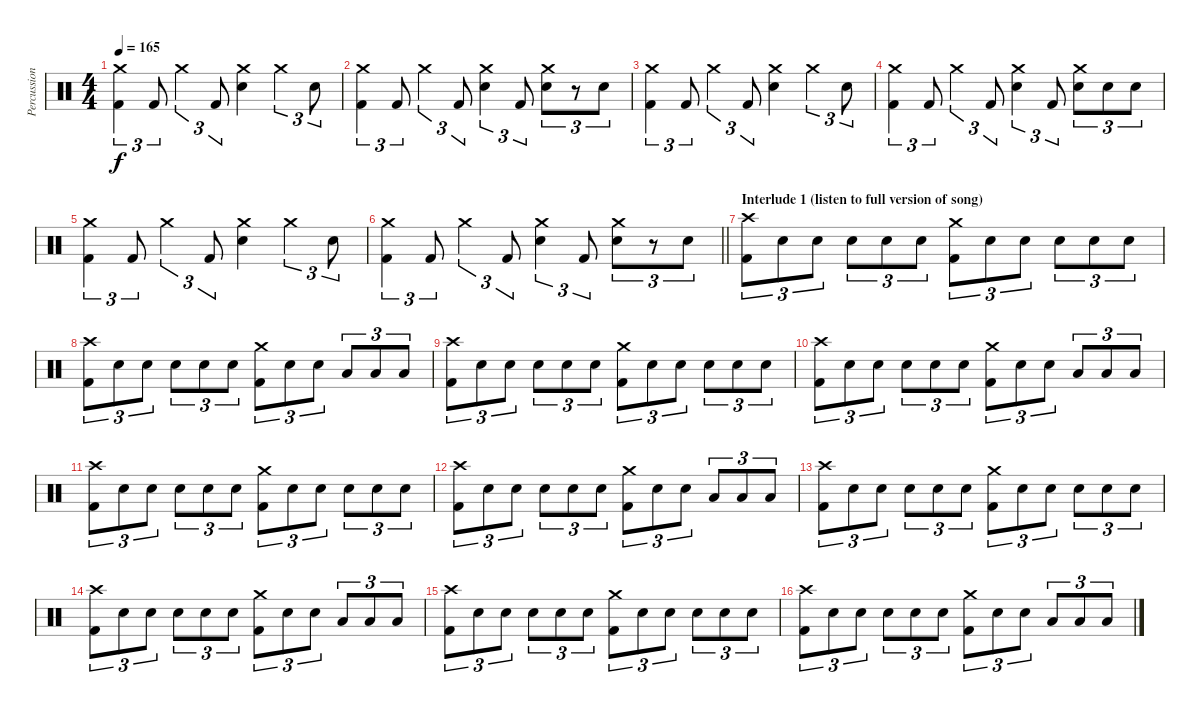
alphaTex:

\track ("Percussion" "Percussion") {instrument percussion}
\staff {score}
\articulation defaults
\ts (4 4)
\tempo 165
\clef neutral
\ks c
("Crash medium (hit)" "Kick (hit) 2").4{tu (3 2) dy f} "Kick (hit) 2".8{tu (3 2)} "Crash medium (hit)".4{tu (3 2)} "Kick (hit) 2".8{tu (3 2)} ("Crash medium (hit)" "Electric Snare (hit)").4 "Crash medium (hit)".4{tu (3 2)} "Electric Snare (hit)".8{tu (3 2)} |
("Crash medium (hit)" "Kick (hit) 2").4{tu (3 2)} "Kick (hit) 2".8{tu (3 2)} "Crash medium (hit)".4{tu (3 2)} "Kick (hit) 2".8{tu (3 2)} ("Crash medium (hit)" "Electric Snare (hit)").4{tu (3 2)} "Kick (hit) 2".8{tu (3 2)} ("Crash medium (hit)" "Electric Snare (hit)").8{tu (3 2)} r.8{tu (3 2)} "Electric Snare (hit)".8{tu (3 2)} |
("Crash medium (hit)" "Kick (hit) 2").4{tu (3 2)} "Kick (hit) 2".8{tu (3 2)} "Crash medium (hit)".4{tu (3 2)} "Kick (hit) 2".8{tu (3 2)} ("Crash medium (hit)" "Electric Snare (hit)").4 "Crash medium (hit)".4{tu (3 2)} "Electric Snare (hit)".8{tu (3 2)} |
("Crash medium (hit)" "Kick (hit) 2").4{tu (3 2)} "Kick (hit) 2".8{tu (3 2)} "Crash medium (hit)".4{tu (3 2)} "Kick (hit) 2".8{tu (3 2)} ("Crash medium (hit)" "Electric Snare (hit)").4{tu (3 2)} "Kick (hit) 2".8{tu (3 2)} ("Crash medium (hit)" "Electric Snare (hit)").8{tu (3 2)} "Electric Snare (hit)".8{tu (3 2)} "Electric Snare (hit)".8{tu (3 2)} |
("Crash medium (hit)" "Kick (hit) 2").4{tu (3 2)} "Kick (hit) 2".8{tu (3 2)} "Crash medium (hit)".4{tu (3 2)} "Kick (hit) 2".8{tu (3 2)} ("Crash medium (hit)" "Electric Snare (hit)").4 "Crash medium (hit)".4{tu (3 2)} "Electric Snare (hit)".8{tu (3 2)} |
\barLineRight lightlight
("Crash medium (hit)" "Kick (hit) 2").4{tu (3 2)} "Kick (hit) 2".8{tu (3 2)} "Crash medium (hit)".4{tu (3 2)} "Kick (hit) 2".8{tu (3 2)} ("Crash medium (hit)" "Electric Snare (hit)").4{tu (3 2)} "Kick (hit) 2".8{tu (3 2)} ("Crash medium (hit)" "Electric Snare (hit)").8{tu (3 2)} r.8{tu (3 2)} "Electric Snare (hit)".8{tu (3 2)} |
\section ("" "Interlude 1 (listen to full version of song)")
("Crash high (hit)" "Kick (hit) 2").8{tu (3 2)} "Electric Snare (hit)".8{tu (3 2)} "Electric Snare (hit)".8{tu (3 2)} "Electric Snare (hit)".8{tu (3 2)} "Electric Snare (hit)".8{tu (3 2)} "Electric Snare (hit)".8{tu (3 2)} ("Crash medium (hit)" "Kick (hit) 2").8{tu (3 2)} "Electric Snare (hit)".8{tu (3 2)} "Electric Snare (hit)".8{tu (3 2)} "Electric Snare (hit)".8{tu (3 2)} "Electric Snare (hit)".8{tu (3 2)} "Electric Snare (hit)".8{tu (3 2)} |
("Crash high (hit)" "Kick (hit) 2").8{tu (3 2)} "Electric Snare (hit)".8{tu (3 2)} "Electric Snare (hit)".8{tu (3 2)} "Electric Snare (hit)".8{tu (3 2)} "Electric Snare (hit)".8{tu (3 2)} "Electric Snare (hit)".8{tu (3 2)} ("Crash medium (hit)" "Kick (hit) 2").8{tu (3 2)} "Electric Snare (hit)".8{tu (3 2)} "Electric Snare (hit)".8{tu (3 2)} "Low Tom (hit)".8{tu (3 2)} "Low Tom (hit)".8{tu (3 2)} "Low Tom (hit)".8{tu (3 2)} |
("Crash high (hit)" "Kick (hit) 2").8{tu (3 2)} "Electric Snare (hit)".8{tu (3 2)} "Electric Snare (hit)".8{tu (3 2)} "Electric Snare (hit)".8{tu (3 2)} "Electric Snare (hit)".8{tu (3 2)} "Electric Snare (hit)".8{tu (3 2)} ("Crash medium (hit)" "Kick (hit) 2").8{tu (3 2)} "Electric Snare (hit)".8{tu (3 2)} "Electric Snare (hit)".8{tu (3 2)} "Electric Snare (hit)".8{tu (3 2)} "Electric Snare (hit)".8{tu (3 2)} "Electric Snare (hit)".8{tu (3 2)} |
("Crash high (hit)" "Kick (hit) 2").8{tu (3 2)} "Electric Snare (hit)".8{tu (3 2)} "Electric Snare (hit)".8{tu (3 2)} "Electric Snare (hit)".8{tu (3 2)} "Electric Snare (hit)".8{tu (3 2)} "Electric Snare (hit)".8{tu (3 2)} ("Crash medium (hit)" "Kick (hit) 2").8{tu (3 2)} "Electric Snare (hit)".8{tu (3 2)} "Electric Snare (hit)".8{tu (3 2)} "Low Tom (hit)".8{tu (3 2)} "Low Tom (hit)".8{tu (3 2)} "Low Tom (hit)".8{tu (3 2)} |
("Crash high (hit)" "Kick (hit) 2").8{tu (3 2)} "Electric Snare (hit)".8{tu (3 2)} "Electric Snare (hit)".8{tu (3 2)} "Electric Snare (hit)".8{tu (3 2)} "Electric Snare (hit)".8{tu (3 2)} "Electric Snare (hit)".8{tu (3 2)} ("Crash medium (hit)" "Kick (hit) 2").8{tu (3 2)} "Electric Snare (hit)".8{tu (3 2)} "Electric Snare (hit)".8{tu (3 2)} "Electric Snare (hit)".8{tu (3 2)} "Electric Snare (hit)".8{tu (3 2)} "Electric Snare (hit)".8{tu (3 2)} |
("Crash high (hit)" "Kick (hit) 2").8{tu (3 2)} "Electric Snare (hit)".8{tu (3 2)} "Electric Snare (hit)".8{tu (3 2)} "Electric Snare (hit)".8{tu (3 2)} "Electric Snare (hit)".8{tu (3 2)} "Electric Snare (hit)".8{tu (3 2)} ("Crash medium (hit)" "Kick (hit) 2").8{tu (3 2)} "Electric Snare (hit)".8{tu (3 2)} "Electric Snare (hit)".8{tu (3 2)} "Low Tom (hit)".8{tu (3 2)} "Low Tom (hit)".8{tu (3 2)} "Low Tom (hit)".8{tu (3 2)} |
("Crash high (hit)" "Kick (hit) 2").8{tu (3 2)} "Electric Snare (hit)".8{tu (3 2)} "Electric Snare (hit)".8{tu (3 2)} "Electric Snare (hit)".8{tu (3 2)} "Electric Snare (hit)".8{tu (3 2)} "Electric Snare (hit)".8{tu (3 2)} ("Crash medium (hit)" "Kick (hit) 2").8{tu (3 2)} "Electric Snare (hit)".8{tu (3 2)} "Electric Snare (hit)".8{tu (3 2)} "Electric Snare (hit)".8{tu (3 2)} "Electric Snare (hit)".8{tu (3 2)} "Electric Snare (hit)".8{tu (3 2)} |
("Crash high (hit)" "Kick (hit) 2").8{tu (3 2)} "Electric Snare (hit)".8{tu (3 2)} "Electric Snare (hit)".8{tu (3 2)} "Electric Snare (hit)".8{tu (3 2)} "Electric Snare (hit)".8{tu (3 2)} "Electric Snare (hit)".8{tu (3 2)} ("Crash medium (hit)" "Kick (hit) 2").8{tu (3 2)} "Electric Snare (hit)".8{tu (3 2)} "Electric Snare (hit)".8{tu (3 2)} "Low Tom (hit)".8{tu (3 2)} "Low Tom (hit)".8{tu (3 2)} "Low Tom (hit)".8{tu (3 2)} |
("Crash high (hit)" "Kick (hit) 2").8{tu (3 2)} "Electric Snare (hit)".8{tu (3 2)} "Electric Snare (hit)".8{tu (3 2)} "Electric Snare (hit)".8{tu (3 2)} "Electric Snare (hit)".8{tu (3 2)} "Electric Snare (hit)".8{tu (3 2)} ("Crash medium (hit)" "Kick (hit) 2").8{tu (3 2)} "Electric Snare (hit)".8{tu (3 2)} "Electric Snare (hit)".8{tu (3 2)} "Electric Snare (hit)".8{tu (3 2)} "Electric Snare (hit)".8{tu (3 2)} "Electric Snare (hit)".8{tu (3 2)} |
("Crash high (hit)" "Kick (hit) 2").8{tu (3 2)} "Electric Snare (hit)".8{tu (3 2)} "Electric Snare (hit)".8{tu (3 2)} "Electric Snare (hit)".8{tu (3 2)} "Electric Snare (hit)".8{tu (3 2)} "Electric Snare (hit)".8{tu (3 2)} ("Crash medium (hit)" "Kick (hit) 2").8{tu (3 2)} "Electric Snare (hit)".8{tu (3 2)} "Electric Snare (hit)".8{tu (3 2)} "Low Tom (hit)".8{tu (3 2)} "Low Tom (hit)".8{tu (3 2)} "Low Tom (hit)".8{tu (3 2)}
